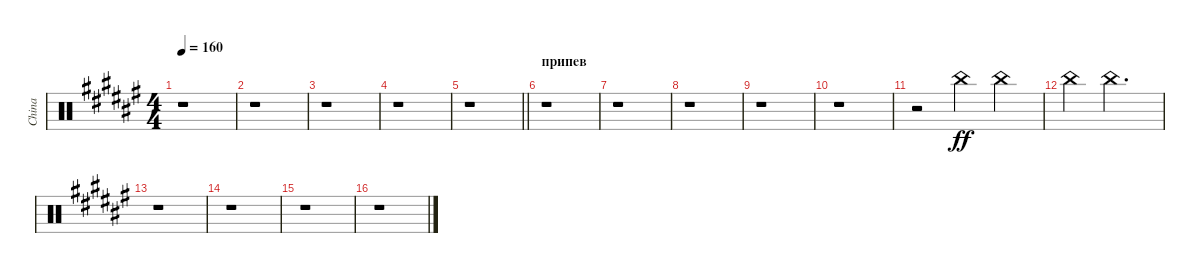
\track ("China" "China") {instrument percussion}
\staff {score}
\articulation defaults
\ts (4 4)
\tempo 160
\clef neutral
\ks d#minor
r.1{dy ff} |
r.1 |
r.1 |
r.1 |
\barLineRight lightlight
r.1 |
\section ("" "припев")
r.1 |
r.1 |
r.1 |
r.1 |
r.1 |
r.2 "China (hit)".4 "China (hit)".4 |
"China (hit)".4 "China (hit)".2{d} |
r.1 |
r.1 |
r.1 |
r.1
